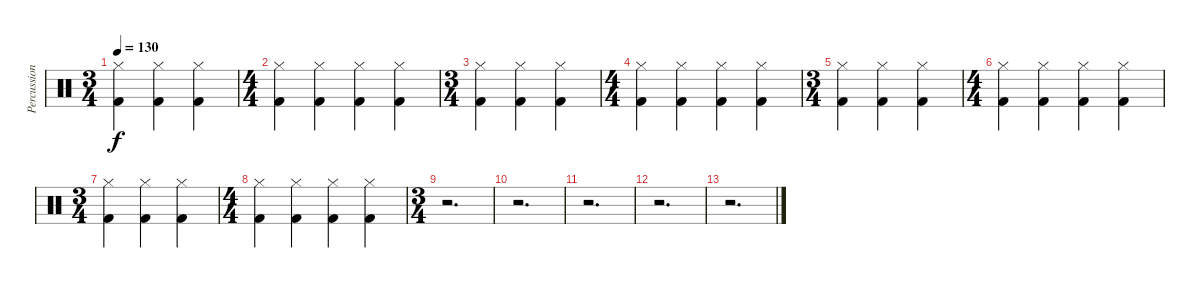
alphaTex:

\track ("Percussion" "Percussion") {instrument percussion}
\staff {score}
\articulation defaults
\ts (3 4)
\tempo 130
\clef neutral
\ks c
("Kick (hit) 2" "Hi-Hat (closed)").4{dy f} ("Kick (hit) 2" "Hi-Hat (closed)").4 ("Kick (hit) 2" "Hi-Hat (closed)").4 |
\ts (4 4)
("Kick (hit) 2" "Hi-Hat (closed)").4 ("Kick (hit) 2" "Hi-Hat (closed)").4 ("Kick (hit) 2" "Hi-Hat (closed)").4 ("Kick (hit) 2" "Hi-Hat (closed)").4 |
\ts (3 4)
("Kick (hit) 2" "Hi-Hat (closed)").4 ("Kick (hit) 2" "Hi-Hat (closed)").4 ("Kick (hit) 2" "Hi-Hat (closed)").4 |
\ts (4 4)
("Kick (hit) 2" "Hi-Hat (closed)").4 ("Kick (hit) 2" "Hi-Hat (closed)").4 ("Kick (hit) 2" "Hi-Hat (closed)").4 ("Kick (hit) 2" "Hi-Hat (closed)").4 |
\ts (3 4)
("Kick (hit) 2" "Hi-Hat (closed)").4 ("Kick (hit) 2" "Hi-Hat (closed)").4 ("Kick (hit) 2" "Hi-Hat (closed)").4 |
\ts (4 4)
("Kick (hit) 2" "Hi-Hat (closed)").4 ("Kick (hit) 2" "Hi-Hat (closed)").4 ("Kick (hit) 2" "Hi-Hat (closed)").4 ("Kick (hit) 2" "Hi-Hat (closed)").4 |
\ts (3 4)
("Kick (hit) 2" "Hi-Hat (closed)").4 ("Kick (hit) 2" "Hi-Hat (closed)").4 ("Kick (hit) 2" "Hi-Hat (closed)").4 |
\ts (4 4)
("Kick (hit) 2" "Hi-Hat (closed)").4 ("Kick (hit) 2" "Hi-Hat (closed)").4 ("Kick (hit) 2" "Hi-Hat (closed)").4 ("Kick (hit) 2" "Hi-Hat (closed)").4 |
\ts (3 4)
r.2{d} |
r.2{d} |
r.2{d} |
r.2{d} |
r.2{d}
